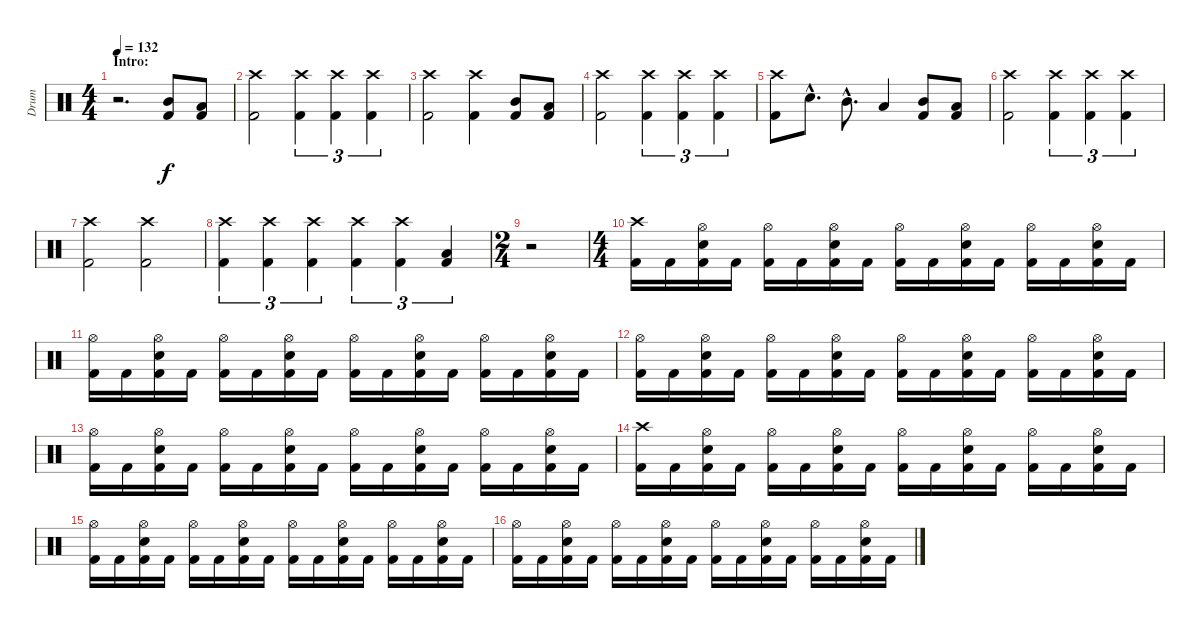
\track ("Drum" "Drum") {instrument percussion}
\staff {score}
\articulation defaults
\ts (4 4)
\section ("" "Intro:")
\tempo 132
\clef neutral
\ks c
r.2{d dy f} ("Kick (hit) 2" "Mid Tom (hit)").8 ("Kick (hit) 2" "Low Tom (hit)").8 |
("Kick (hit) 2" "Crash high (hit)").2 ("Kick (hit) 2" "Crash high (hit)").4{tu (3 2)} ("Kick (hit) 2" "Crash high (hit)").4{tu (3 2)} ("Kick (hit) 2" "Crash high (hit)").4{tu (3 2)} |
("Kick (hit) 2" "Crash high (hit)").2 ("Kick (hit) 2" "Crash high (hit)").4 ("Kick (hit) 2" "Mid Tom (hit)").8 ("Kick (hit) 2" "Low Tom (hit)").8 |
("Kick (hit) 2" "Crash high (hit)").2 ("Kick (hit) 2" "Crash high (hit)").4{tu (3 2)} ("Kick (hit) 2" "Crash high (hit)").4{tu (3 2)} ("Kick (hit) 2" "Crash high (hit)").4{tu (3 2)} |
("Kick (hit) 2" "Crash high (hit)").8 "Snare (hit) 2"{hac}.8{d} "Mid Tom (hit)"{hac}.8{d} "Low Tom (hit)".4 ("Kick (hit) 2" "Mid Tom (hit)").8 ("Kick (hit) 2" "Low Tom (hit)").8 |
("Kick (hit) 2" "Crash high (hit)").2 ("Kick (hit) 2" "Crash high (hit)").4{tu (3 2)} ("Kick (hit) 2" "Crash high (hit)").4{tu (3 2)} ("Kick (hit) 2" "Crash high (hit)").4{tu (3 2)} |
("Kick (hit) 2" "Crash high (hit)").2 ("Kick (hit) 2" "Crash high (hit)").2 |
("Kick (hit) 2" "Crash high (hit)").4{tu (3 2)} ("Kick (hit) 2" "Crash high (hit)").4{tu (3 2)} ("Kick (hit) 2" "Crash high (hit)").4{tu (3 2)} ("Kick (hit) 2" "Crash high (hit)").4{tu (3 2)} ("Kick (hit) 2" "Crash high (hit)").4{tu (3 2)} ("Kick (hit) 2" "Low Tom (hit)").4{tu (3 2)} |
\ts (2 4)
r.2 |
\ts (4 4)
("Kick (hit) 2" "Crash high (hit)").16 "Kick (hit) 2".16 ("Kick (hit) 2" "Snare (hit) 2" "Hi-Hat (open)").16 "Kick (hit) 2".16 ("Kick (hit) 2" "Hi-Hat (open)").16 "Kick (hit) 2".16 ("Kick (hit) 2" "Snare (hit) 2" "Hi-Hat (open)").16 "Kick (hit) 2".16 ("Kick (hit) 2" "Hi-Hat (open)").16 "Kick (hit) 2".16 ("Kick (hit) 2" "Snare (hit) 2" "Hi-Hat (open)").16 "Kick (hit) 2".16 ("Kick (hit) 2" "Hi-Hat (open)").16 "Kick (hit) 2".16 ("Kick (hit) 2" "Snare (hit) 2" "Hi-Hat (open)").16 "Kick (hit) 2".16 |
("Kick (hit) 2" "Hi-Hat (open)").16 "Kick (hit) 2".16 ("Kick (hit) 2" "Snare (hit) 2" "Hi-Hat (open)").16 "Kick (hit) 2".16 ("Kick (hit) 2" "Hi-Hat (open)").16 "Kick (hit) 2".16 ("Kick (hit) 2" "Snare (hit) 2" "Hi-Hat (open)").16 "Kick (hit) 2".16 ("Kick (hit) 2" "Hi-Hat (open)").16 "Kick (hit) 2".16 ("Kick (hit) 2" "Snare (hit) 2" "Hi-Hat (open)").16 "Kick (hit) 2".16 ("Kick (hit) 2" "Hi-Hat (open)").16 "Kick (hit) 2".16 ("Kick (hit) 2" "Snare (hit) 2" "Hi-Hat (open)").16 "Kick (hit) 2".16 |
("Kick (hit) 2" "Hi-Hat (open)").16 "Kick (hit) 2".16 ("Kick (hit) 2" "Snare (hit) 2" "Hi-Hat (open)").16 "Kick (hit) 2".16 ("Kick (hit) 2" "Hi-Hat (open)").16 "Kick (hit) 2".16 ("Kick (hit) 2" "Snare (hit) 2" "Hi-Hat (open)").16 "Kick (hit) 2".16 ("Kick (hit) 2" "Hi-Hat (open)").16 "Kick (hit) 2".16 ("Kick (hit) 2" "Snare (hit) 2" "Hi-Hat (open)").16 "Kick (hit) 2".16 ("Kick (hit) 2" "Hi-Hat (open)").16 "Kick (hit) 2".16 ("Kick (hit) 2" "Snare (hit) 2" "Hi-Hat (open)").16 "Kick (hit) 2".16 |
("Kick (hit) 2" "Hi-Hat (open)").16 "Kick (hit) 2".16 ("Kick (hit) 2" "Snare (hit) 2" "Hi-Hat (open)").16 "Kick (hit) 2".16 ("Kick (hit) 2" "Hi-Hat (open)").16 "Kick (hit) 2".16 ("Kick (hit) 2" "Snare (hit) 2" "Hi-Hat (open)").16 "Kick (hit) 2".16 ("Kick (hit) 2" "Hi-Hat (open)").16 "Kick (hit) 2".16 ("Kick (hit) 2" "Snare (hit) 2" "Hi-Hat (open)").16 "Kick (hit) 2".16 ("Kick (hit) 2" "Hi-Hat (open)").16 "Kick (hit) 2".16 ("Kick (hit) 2" "Snare (hit) 2" "Hi-Hat (open)").16 "Kick (hit) 2".16 |
("Kick (hit) 2" "Crash high (hit)").16 "Kick (hit) 2".16 ("Kick (hit) 2" "Snare (hit) 2" "Hi-Hat (open)").16 "Kick (hit) 2".16 ("Kick (hit) 2" "Hi-Hat (open)").16 "Kick (hit) 2".16 ("Kick (hit) 2" "Snare (hit) 2" "Hi-Hat (open)").16 "Kick (hit) 2".16 ("Kick (hit) 2" "Hi-Hat (open)").16 "Kick (hit) 2".16 ("Kick (hit) 2" "Snare (hit) 2" "Hi-Hat (open)").16 "Kick (hit) 2".16 ("Kick (hit) 2" "Hi-Hat (open)").16 "Kick (hit) 2".16 ("Kick (hit) 2" "Snare (hit) 2" "Hi-Hat (open)").16 "Kick (hit) 2".16 |
("Kick (hit) 2" "Hi-Hat (open)").16 "Kick (hit) 2".16 ("Kick (hit) 2" "Snare (hit) 2" "Hi-Hat (open)").16 "Kick (hit) 2".16 ("Kick (hit) 2" "Hi-Hat (open)").16 "Kick (hit) 2".16 ("Kick (hit) 2" "Snare (hit) 2" "Hi-Hat (open)").16 "Kick (hit) 2".16 ("Kick (hit) 2" "Hi-Hat (open)").16 "Kick (hit) 2".16 ("Kick (hit) 2" "Snare (hit) 2" "Hi-Hat (open)").16 "Kick (hit) 2".16 ("Kick (hit) 2" "Hi-Hat (open)").16 "Kick (hit) 2".16 ("Kick (hit) 2" "Snare (hit) 2" "Hi-Hat (open)").16 "Kick (hit) 2".16 |
("Kick (hit) 2" "Hi-Hat (open)").16 "Kick (hit) 2".16 ("Kick (hit) 2" "Snare (hit) 2" "Hi-Hat (open)").16 "Kick (hit) 2".16 ("Kick (hit) 2" "Hi-Hat (open)").16 "Kick (hit) 2".16 ("Kick (hit) 2" "Snare (hit) 2" "Hi-Hat (open)").16 "Kick (hit) 2".16 ("Kick (hit) 2" "Hi-Hat (open)").16 "Kick (hit) 2".16 ("Kick (hit) 2" "Snare (hit) 2" "Hi-Hat (open)").16 "Kick (hit) 2".16 ("Kick (hit) 2" "Hi-Hat (open)").16 "Kick (hit) 2".16 ("Kick (hit) 2" "Snare (hit) 2" "Hi-Hat (open)").16 "Kick (hit) 2".16
